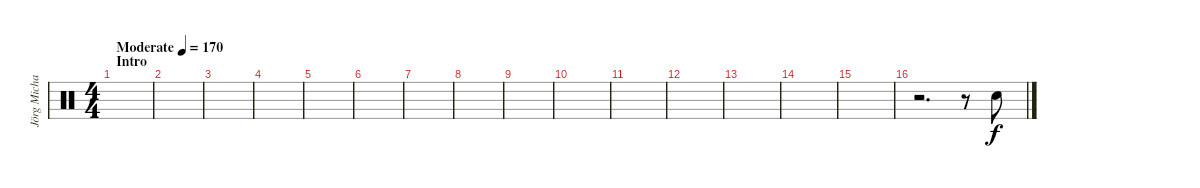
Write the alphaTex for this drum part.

\track ("Jörg Michael" "Jörg Micha") {instrument percussion}
\staff {score}
\articulation defaults
\ts (4 4)
\section ("" "Intro")
\tempo (170 "Moderate")
\clef neutral
\ks c
|
|
|
|
|
|
|
|
|
|
|
|
|
|
|
r.2{d} r.8 "Electric Snare (hit)".8
